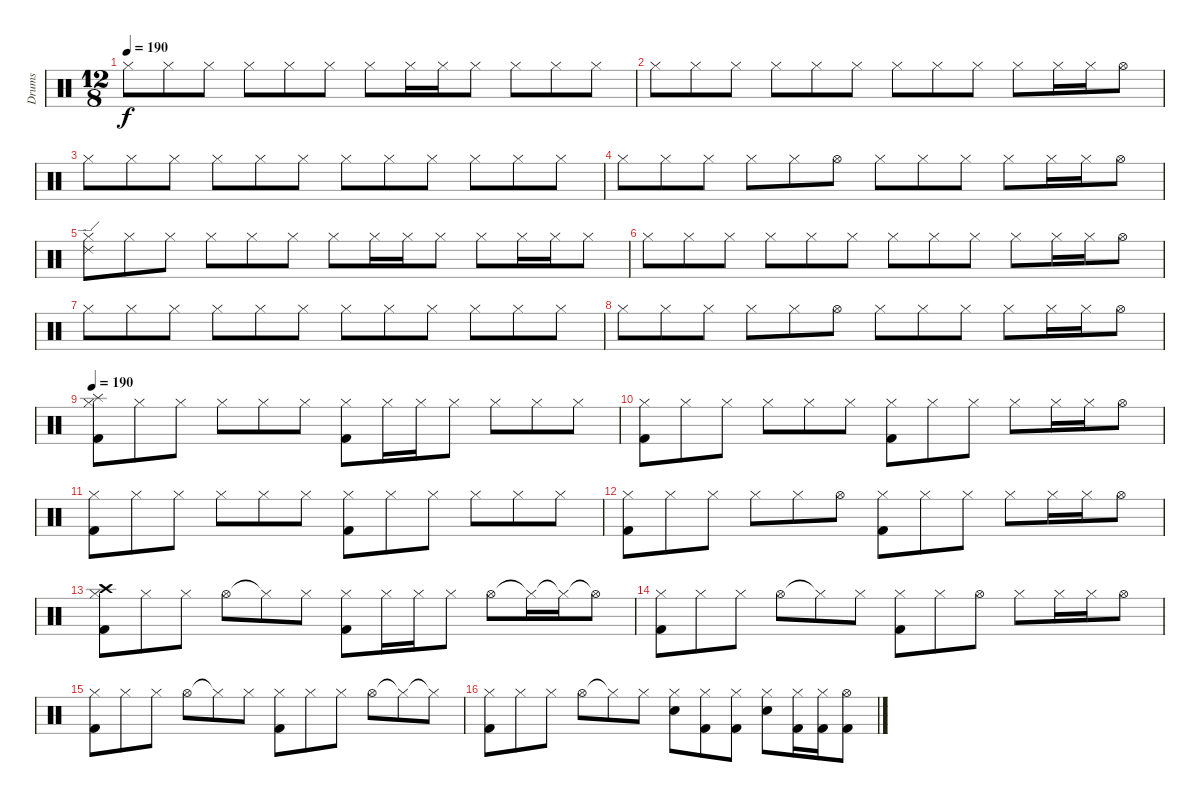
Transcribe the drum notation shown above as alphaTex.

\track ("Drums" "Drums") {instrument percussion}
\staff {score}
\articulation defaults
\ts (12 8)
\tempo 190
\clef neutral
\ks c "Hi-Hat (closed)".8{dy f volume 11} "Hi-Hat (closed)".8 "Hi-Hat (closed)".8 "Hi-Hat (closed)".8 "Hi-Hat (closed)".8 "Hi-Hat (closed)".8 "Hi-Hat (closed)".8 "Hi-Hat (closed)".16 "Hi-Hat (closed)".16 "Hi-Hat (closed)".8 "Hi-Hat (closed)".8 "Hi-Hat (closed)".8 "Hi-Hat (closed)".8
|
"Hi-Hat (closed)".8 "Hi-Hat (closed)".8 "Hi-Hat (closed)".8 "Hi-Hat (closed)".8 "Hi-Hat (closed)".8 "Hi-Hat (closed)".8 "Hi-Hat (closed)".8 "Hi-Hat (closed)".8 "Hi-Hat (closed)".8 "Hi-Hat (closed)".8 "Hi-Hat (closed)".16 "Hi-Hat (closed)".16 "Hi-Hat (open)".8 |
"Hi-Hat (closed)".8 "Hi-Hat (closed)".8 "Hi-Hat (closed)".8 "Hi-Hat (closed)".8 "Hi-Hat (closed)".8 "Hi-Hat (closed)".8 "Hi-Hat (closed)".8 "Hi-Hat (closed)".8 "Hi-Hat (closed)".8 "Hi-Hat (closed)".8 "Hi-Hat (closed)".8 "Hi-Hat (closed)".8 |
"Hi-Hat (closed)".8 "Hi-Hat (closed)".8 "Hi-Hat (closed)".8 "Hi-Hat (closed)".8 "Hi-Hat (closed)".8 "Hi-Hat (open)".8 "Hi-Hat (closed)".8 "Hi-Hat (closed)".8 "Hi-Hat (closed)".8 "Hi-Hat (closed)".8 "Hi-Hat (closed)".16 "Hi-Hat (closed)".16 "Hi-Hat (open)".8 |
("Ride (edge) 2" "Hi-Hat (closed)").8{volume 11} "Hi-Hat (closed)".8 "Hi-Hat (closed)".8 "Hi-Hat (closed)".8 "Hi-Hat (closed)".8 "Hi-Hat (closed)".8 "Hi-Hat (closed)".8 "Hi-Hat (closed)".16 "Hi-Hat (closed)".16 "Hi-Hat (closed)".8 "Hi-Hat (closed)".8 "Hi-Hat (closed)".16 "Hi-Hat (closed)".16 "Hi-Hat (closed)".8 |
"Hi-Hat (closed)".8 "Hi-Hat (closed)".8 "Hi-Hat (closed)".8 "Hi-Hat (closed)".8 "Hi-Hat (closed)".8 "Hi-Hat (closed)".8 "Hi-Hat (closed)".8 "Hi-Hat (closed)".8 "Hi-Hat (closed)".8 "Hi-Hat (closed)".8 "Hi-Hat (closed)".16 "Hi-Hat (closed)".16 "Hi-Hat (open)".8 |
"Hi-Hat (closed)".8 "Hi-Hat (closed)".8 "Hi-Hat (closed)".8 "Hi-Hat (closed)".8 "Hi-Hat (closed)".8 "Hi-Hat (closed)".8 "Hi-Hat (closed)".8 "Hi-Hat (closed)".8 "Hi-Hat (closed)".8 "Hi-Hat (closed)".8 "Hi-Hat (closed)".8 "Hi-Hat (closed)".8 |
"Hi-Hat (closed)".8 "Hi-Hat (closed)".8 "Hi-Hat (closed)".8 "Hi-Hat (closed)".8 "Hi-Hat (closed)".8 "Hi-Hat (open)".8 "Hi-Hat (closed)".8 "Hi-Hat (closed)".8 "Hi-Hat (closed)".8 "Hi-Hat (closed)".8 "Hi-Hat (closed)".16 "Hi-Hat (closed)".16 "Hi-Hat (open)".8 |
\tempo 190
("Splash (hit)" "Kick (hit) 2" "Hi-Hat (closed)").8{volume 13} "Hi-Hat (closed)".8 "Hi-Hat (closed)".8 "Hi-Hat (closed)".8 "Hi-Hat (closed)".8 "Hi-Hat (closed)".8 ("Kick (hit) 2" "Hi-Hat (closed)").8 "Hi-Hat (closed)".16 "Hi-Hat (closed)".16 "Hi-Hat (closed)".8 "Hi-Hat (closed)".8 "Hi-Hat (closed)".8 "Hi-Hat (closed)".8 |
("Kick (hit) 2" "Hi-Hat (closed)").8 "Hi-Hat (closed)".8 "Hi-Hat (closed)".8 "Hi-Hat (closed)".8 "Hi-Hat (closed)".8 "Hi-Hat (closed)".8 ("Kick (hit) 2" "Hi-Hat (closed)").8 "Hi-Hat (closed)".8 "Hi-Hat (closed)".8 "Hi-Hat (closed)".8 "Hi-Hat (closed)".16 "Hi-Hat (closed)".16 "Hi-Hat (open)".8 |
("Kick (hit) 2" "Hi-Hat (closed)").8 "Hi-Hat (closed)".8 "Hi-Hat (closed)".8 "Hi-Hat (closed)".8 "Hi-Hat (closed)".8 "Hi-Hat (closed)".8 ("Kick (hit) 2" "Hi-Hat (closed)").8 "Hi-Hat (closed)".8 "Hi-Hat (closed)".8 "Hi-Hat (closed)".8 "Hi-Hat (closed)".8 "Hi-Hat (closed)".8 |
("Kick (hit) 2" "Hi-Hat (closed)").8 "Hi-Hat (closed)".8 "Hi-Hat (closed)".8 "Hi-Hat (closed)".8 "Hi-Hat (closed)".8 "Hi-Hat (open)".8 ("Kick (hit) 2" "Hi-Hat (closed)").8 "Hi-Hat (closed)".8 "Hi-Hat (closed)".8 "Hi-Hat (closed)".8 "Hi-Hat (closed)".16 "Hi-Hat (closed)".16 "Hi-Hat (open)".8 |
("Crash high (hit)" "Kick (hit) 2" "Hi-Hat (closed)").8{volume 11} "Hi-Hat (closed)".8 "Hi-Hat (closed)".8 "Hi-Hat (open)".8 "Hi-Hat (closed)"{t}.8 "Hi-Hat (closed)".8 ("Kick (hit) 2" "Hi-Hat (closed)").8 "Hi-Hat (closed)".16 "Hi-Hat (closed)".16 "Hi-Hat (closed)".8 "Hi-Hat (open)".8 "Hi-Hat (closed)"{t}.16 "Hi-Hat (closed)"{t}.16 "Hi-Hat (open)"{t}.8 |
("Kick (hit) 2" "Hi-Hat (closed)").8 "Hi-Hat (closed)".8 "Hi-Hat (closed)".8 "Hi-Hat (open)".8 "Hi-Hat (closed)"{t}.8 "Hi-Hat (closed)".8 ("Kick (hit) 2" "Hi-Hat (closed)").8 "Hi-Hat (closed)".8 "Hi-Hat (open)".8 "Hi-Hat (closed)".8 "Hi-Hat (closed)".16 "Hi-Hat (closed)".16 "Hi-Hat (open)".8 |
("Kick (hit) 2" "Hi-Hat (closed)").8 "Hi-Hat (closed)".8 "Hi-Hat (closed)".8 "Hi-Hat (open)".8 "Hi-Hat (closed)"{t}.8 "Hi-Hat (closed)".8 ("Kick (hit) 2" "Hi-Hat (closed)").8 "Hi-Hat (closed)".8 "Hi-Hat (closed)".8 "Hi-Hat (open)".8 "Hi-Hat (closed)"{t}.8 "Hi-Hat (closed)"{t}.8 |
("Kick (hit) 2" "Hi-Hat (closed)").8 "Hi-Hat (closed)".8 "Hi-Hat (closed)".8 "Hi-Hat (open)".8 "Hi-Hat (closed)"{t}.8 "Hi-Hat (closed)".8 ("Electric Snare (hit)" "Hi-Hat (closed)").8 ("Kick (hit) 2" "Hi-Hat (closed)").8 ("Kick (hit) 2" "Hi-Hat (closed)").8 ("Electric Snare (hit)" "Hi-Hat (closed)").8 ("Kick (hit) 2" "Hi-Hat (closed)").16 ("Kick (hit) 2" "Hi-Hat (closed)").16 ("Kick (hit) 2" "Hi-Hat (open)").8
